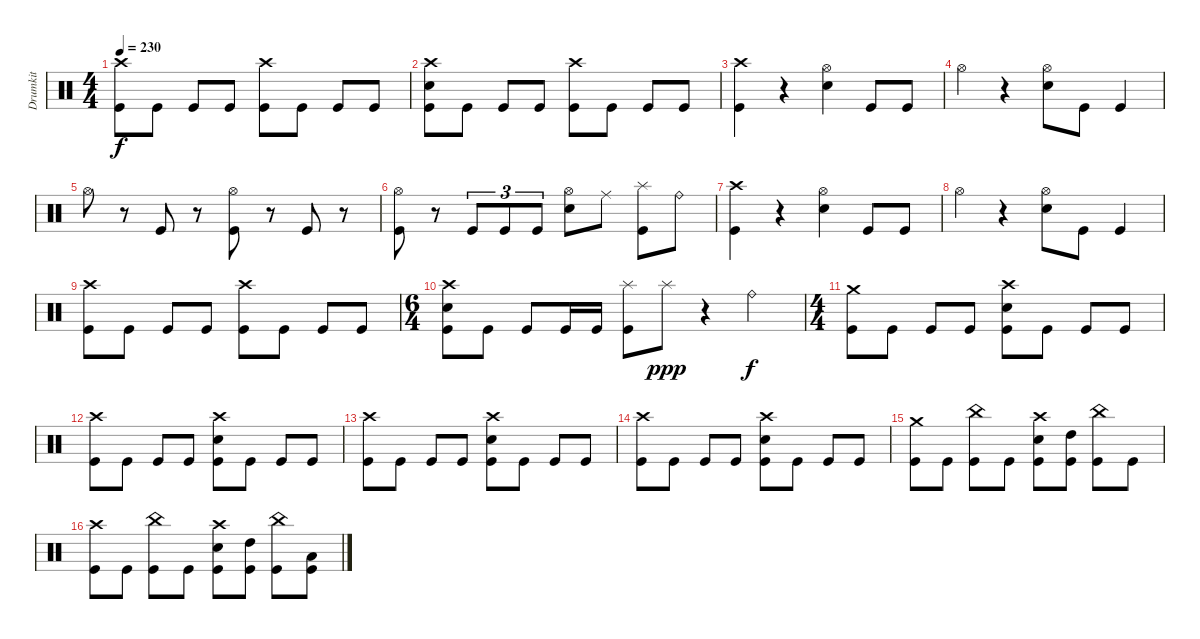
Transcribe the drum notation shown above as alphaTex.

\track ("Drumkit" "Drumkit") {instrument percussion}
\staff {score}
\articulation defaults
\ts (4 4)
\tempo 230
\clef neutral
\ks c
("Crash high (hit)" "Kick (hit)").8{dy f} "Kick (hit)".8 "Kick (hit)".8 "Kick (hit)".8 ("Crash high (hit)" "Kick (hit)").8 "Kick (hit)".8 "Kick (hit)".8 "Kick (hit)".8 |
("Crash high (hit)" "Snare (hit) 2" "Kick (hit)").8 "Kick (hit)".8 "Kick (hit)".8 "Kick (hit)".8 ("Crash high (hit)" "Kick (hit)").8 "Kick (hit)".8 "Kick (hit)".8 "Kick (hit)".8 |
("Crash high (hit)" "Kick (hit)").4 r.4 ("Hi-Hat (open)" "Snare (hit) 2").4 "Kick (hit)".8 "Kick (hit)".8 |
"Hi-Hat (open)".4 r.4 ("Hi-Hat (open)" "Snare (hit) 2").8 "Kick (hit)".8 "Kick (hit)".4 |
"Hi-Hat (open)".8 r.8 "Kick (hit)".8 r.8 ("Hi-Hat (open)" "Kick (hit)").8 r.8 "Kick (hit)".8 r.8 |
("Hi-Hat (open)" "Kick (hit)").8 r.8 "Kick (hit)".8{tu (3 2)} "Kick (hit)".8{tu (3 2)} "Kick (hit)".8{tu (3 2)} ("Hi-Hat (open)" "Snare (hit) 2").8 "Ride (middle)".8 ("Splash (hit)" "Kick (hit)").8 "Ride (bell)".8 |
("Crash high (hit)" "Kick (hit)").4 r.4 ("Hi-Hat (open)" "Snare (hit) 2").4 "Kick (hit)".8 "Kick (hit)".8 |
"Hi-Hat (open)".4 r.4 ("Hi-Hat (open)" "Snare (hit) 2").8 "Kick (hit)".8 "Kick (hit)".4 |
("Crash high (hit)" "Kick (hit)").8 "Kick (hit)".8 "Kick (hit)".8 "Kick (hit)".8 ("Crash high (hit)" "Kick (hit)").8 "Kick (hit)".8 "Kick (hit)".8 "Kick (hit)".8 |
\ts (6 4)
("Crash high (hit)" "Snare (hit) 2" "Kick (hit)").8 "Kick (hit)".8 "Kick (hit)".8 "Kick (hit)".16 "Kick (hit)".16 ("Splash (hit)" "Kick (hit)").8 "Splash (hit)".8{dy ppp} r.4 "Ride (bell)".2{dy f} |
\ts (4 4)
("Crash medium (hit)" "Kick (hit)").8 "Kick (hit)".8 "Kick (hit)".8 "Kick (hit)".8 ("Crash high (hit)" "Snare (hit) 2" "Kick (hit)").8 "Kick (hit)".8 "Kick (hit)".8 "Kick (hit)".8 |
("Crash high (hit)" "Kick (hit)").8 "Kick (hit)".8 "Kick (hit)".8 "Kick (hit)".8 ("Crash high (hit)" "Snare (hit) 2" "Kick (hit)").8 "Kick (hit)".8 "Kick (hit)".8 "Kick (hit)".8 |
("Crash high (hit)" "Kick (hit)").8 "Kick (hit)".8 "Kick (hit)".8 "Kick (hit)".8 ("Crash high (hit)" "Snare (hit) 2" "Kick (hit)").8 "Kick (hit)".8 "Kick (hit)".8 "Kick (hit)".8 |
("Crash high (hit)" "Kick (hit)").8 "Kick (hit)".8 "Kick (hit)".8 "Kick (hit)".8 ("Crash high (hit)" "Snare (hit) 2" "Kick (hit)").8 "Kick (hit)".8 "Kick (hit)".8 "Kick (hit)".8 |
("Crash medium (hit)" "Kick (hit)").8 "Kick (hit)".8 ("China (hit)" "Kick (hit)").8 "Kick (hit)".8 ("Crash high (hit)" "Snare (hit) 2" "Kick (hit)").8 ("High Tom (hit)" "Kick (hit)").8 ("China (hit)" "Kick (hit)").8 "Kick (hit)".8 |
("Crash high (hit)" "Kick (hit)").8 "Kick (hit)".8 ("China (hit)" "Kick (hit)").8 "Kick (hit)".8 ("Crash high (hit)" "Snare (hit) 2" "Kick (hit)").8 ("High Tom (hit)" "Kick (hit)").8 ("China (hit)" "Kick (hit)").8 ("Low Tom (hit)" "Kick (hit)").8
